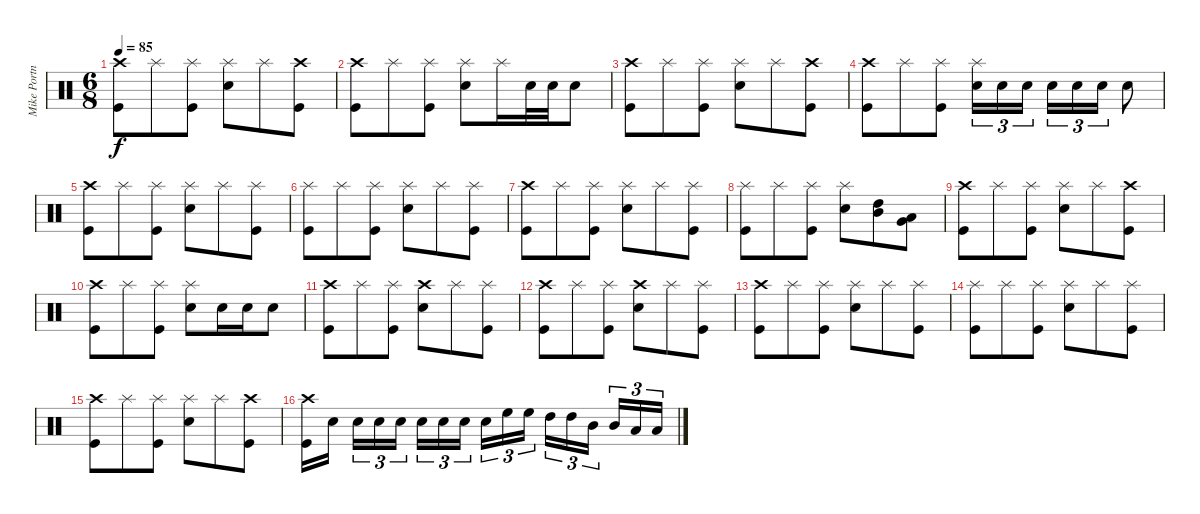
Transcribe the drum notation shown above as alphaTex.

\track ("Mike Portnoy" "Mike Portn") {instrument percussion}
\staff {score}
\articulation defaults
\ts (6 8)
\tempo 85
\clef neutral
\ks c
("Crash high (hit)" "Kick (hit)").8{dy f} "Splash (hit)".8 ("Splash (hit)" "Kick (hit)").8 ("Splash (hit)" "Electric Snare (hit)").8 "Splash (hit)".8 ("Crash high (hit)" "Kick (hit)").8 |
("Crash high (hit)" "Kick (hit)").8 "Splash (hit)".8 ("Splash (hit)" "Kick (hit)").8 ("Splash (hit)" "Electric Snare (hit)").8 "Splash (hit)".16 "Electric Snare (hit)".32 "Electric Snare (hit)".32 "Electric Snare (hit)".8 |
("Crash high (hit)" "Kick (hit)").8 "Splash (hit)".8 ("Splash (hit)" "Kick (hit)").8 ("Splash (hit)" "Electric Snare (hit)").8 "Splash (hit)".8 ("Crash high (hit)" "Kick (hit)").8 |
("Crash high (hit)" "Kick (hit)").8 "Splash (hit)".8 ("Splash (hit)" "Kick (hit)").8 ("Splash (hit)" "Electric Snare (hit)").16{tu (3 2)} "Electric Snare (hit)".16{tu (3 2)} "Electric Snare (hit)".16{tu (3 2)} "Electric Snare (hit)".16{tu (3 2)} "Electric Snare (hit)".16{tu (3 2)} "Electric Snare (hit)".16{tu (3 2)} "Electric Snare (hit)".8 |
("Crash high (hit)" "Kick (hit)").8 "Splash (hit)".8 ("Splash (hit)" "Kick (hit)").8 ("Splash (hit)" "Electric Snare (hit)").8 "Splash (hit)".8 ("Splash (hit)" "Kick (hit)").8 |
("Splash (hit)" "Kick (hit)").8 "Splash (hit)".8 ("Splash (hit)" "Kick (hit)").8 ("Splash (hit)" "Electric Snare (hit)").8 "Splash (hit)".8 ("Splash (hit)" "Kick (hit)").8 |
("Crash high (hit)" "Kick (hit)").8 "Splash (hit)".8 ("Splash (hit)" "Kick (hit)").8 ("Splash (hit)" "Electric Snare (hit)").8 "Splash (hit)".8 ("Splash (hit)" "Kick (hit)").8 |
("Splash (hit)" "Kick (hit)").8 "Splash (hit)".8 ("Splash (hit)" "Kick (hit)").8 ("Splash (hit)" "Electric Snare (hit)").8 ("High Tom (hit)" "Mid Tom (hit)").8 ("Low Tom (hit)" "Very Low Tom (hit)").8 |
("Crash high (hit)" "Kick (hit)").8 "Splash (hit)".8 ("Splash (hit)" "Kick (hit)").8 ("Splash (hit)" "Electric Snare (hit)").8 "Splash (hit)".8 ("Crash high (hit)" "Kick (hit)").8 |
("Crash high (hit)" "Kick (hit)").8 "Splash (hit)".8 ("Splash (hit)" "Kick (hit)").8 ("Splash (hit)" "Electric Snare (hit)").8 "Electric Snare (hit)".16 "Electric Snare (hit)".16 "Electric Snare (hit)".8 |
("Crash high (hit)" "Kick (hit)").8 "Splash (hit)".8 ("Splash (hit)" "Kick (hit)").8 ("Crash high (hit)" "Electric Snare (hit)").8 "Splash (hit)".8 ("Splash (hit)" "Kick (hit)").8 |
("Crash high (hit)" "Kick (hit)").8 "Splash (hit)".8 ("Splash (hit)" "Kick (hit)").8 ("Crash high (hit)" "Electric Snare (hit)").8 "Splash (hit)".8 ("Splash (hit)" "Kick (hit)").8 |
("Crash high (hit)" "Kick (hit)").8 "Splash (hit)".8 ("Splash (hit)" "Kick (hit)").8 ("Splash (hit)" "Electric Snare (hit)").8 "Splash (hit)".8 ("Splash (hit)" "Kick (hit)").8 |
("Splash (hit)" "Kick (hit)").8 "Splash (hit)".8 ("Splash (hit)" "Kick (hit)").8 ("Splash (hit)" "Electric Snare (hit)").8 "Splash (hit)".8 ("Splash (hit)" "Kick (hit)").8 |
("Crash high (hit)" "Kick (hit)").8 "Splash (hit)".8 ("Splash (hit)" "Kick (hit)").8 ("Splash (hit)" "Electric Snare (hit)").8 "Splash (hit)".8 ("Crash high (hit)" "Kick (hit)").8 |
("Crash high (hit)" "Kick (hit)").16 "Electric Snare (hit)".16 "Electric Snare (hit)".16{tu (3 2)} "Electric Snare (hit)".16{tu (3 2)} "Electric Snare (hit)".16{tu (3 2)} "Electric Snare (hit)".16{tu (3 2)} "Electric Snare (hit)".16{tu (3 2)} "Electric Snare (hit)".16{tu (3 2)} "Electric Snare (hit)".16{tu (3 2)} "High Floor Tom (hit)".16{tu (3 2)} "High Floor Tom (hit)".16{tu (3 2)} "High Tom (hit)".16{tu (3 2)} "High Tom (hit)".16{tu (3 2)} "Mid Tom (hit)".16{tu (3 2)} "Mid Tom (hit)".16{tu (3 2)} "Low Tom (hit)".16{tu (3 2)} "Low Tom (hit)".16{tu (3 2)}
